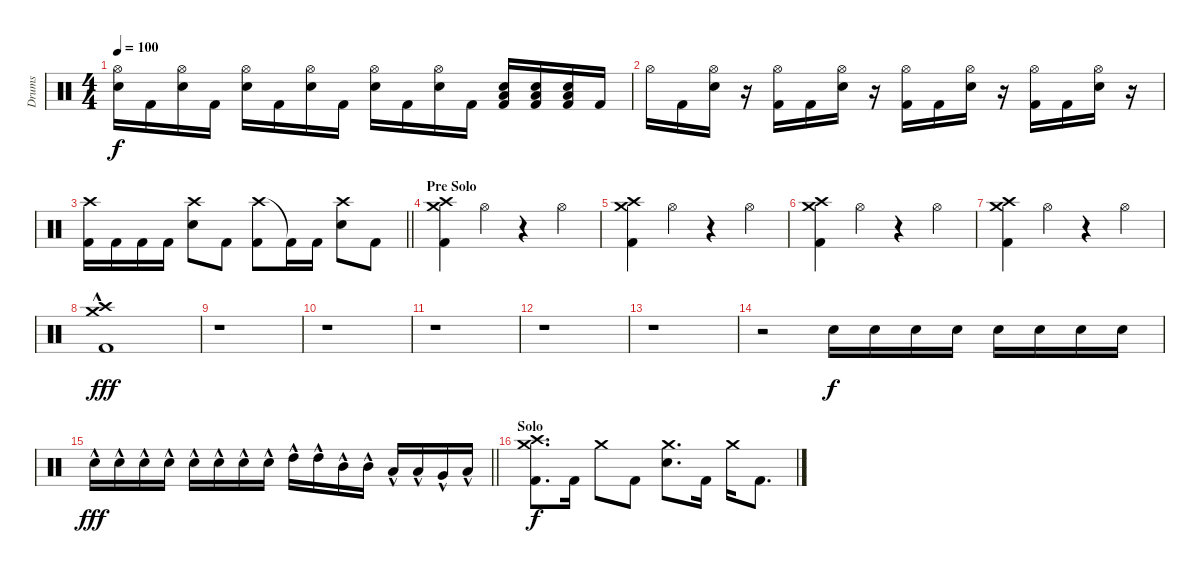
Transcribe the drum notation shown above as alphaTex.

\track ("Drums" "Drums") {instrument percussion}
\staff {score}
\articulation defaults
\ts (4 4)
\tempo 100
\clef neutral
\ks c
("Hi-Hat (open)" "Snare (hit) 2").16{dy f} "Kick (hit) 2".16 ("Hi-Hat (open)" "Snare (hit) 2").16 "Kick (hit) 2".16 ("Hi-Hat (open)" "Snare (hit) 2").16 "Kick (hit) 2".16 ("Hi-Hat (open)" "Snare (hit) 2").16 "Kick (hit) 2".16 ("Hi-Hat (open)" "Snare (hit) 2").16 "Kick (hit) 2".16 ("Hi-Hat (open)" "Snare (hit) 2").16 "Kick (hit) 2".16 ("Low Floor Tom (hit)" "Snare (hit) 2" "Kick (hit) 2").16 ("Low Floor Tom (hit)" "Snare (hit) 2" "Kick (hit) 2").16 ("Low Floor Tom (hit)" "Snare (hit) 2" "Kick (hit) 2").16 "Kick (hit) 2".16 |
"Hi-Hat (open)".16 "Kick (hit) 2".16 ("Hi-Hat (open)" "Snare (hit) 2").16 r.16 ("Hi-Hat (open)" "Kick (hit) 2").16 "Kick (hit) 2".16 ("Hi-Hat (open)" "Snare (hit) 2").16 r.16 ("Hi-Hat (open)" "Kick (hit) 2").16 "Kick (hit) 2".16 ("Hi-Hat (open)" "Snare (hit) 2").16 r.16 ("Hi-Hat (open)" "Kick (hit) 2").16 "Kick (hit) 2".16 ("Hi-Hat (open)" "Snare (hit) 2").16 r.16 |
\barLineRight lightlight
("Crash high (hit)" "Kick (hit) 2").16 "Kick (hit) 2".16 "Kick (hit) 2".16 "Kick (hit) 2".16 ("Crash high (hit)" "Snare (hit) 2").8 "Kick (hit) 2".8 ("Crash high (hit)" "Kick (hit) 2").8 "Kick (hit) 2"{t}.16 "Kick (hit) 2".16 ("Crash high (hit)" "Snare (hit) 2").8 "Kick (hit) 2".8 |
\section ("" "Pre Solo")
("Crash medium (hit)" "Crash high (hit)" "Kick (hit) 2").4 "Hi-Hat (open)".4 r.4 "Hi-Hat (open)".4 |
("Crash medium (hit)" "Crash high (hit)" "Kick (hit) 2").4 "Hi-Hat (open)".4 r.4 "Hi-Hat (open)".4 |
("Crash medium (hit)" "Crash high (hit)" "Kick (hit) 2").4 "Hi-Hat (open)".4 r.4 "Hi-Hat (open)".4 |
("Crash medium (hit)" "Crash high (hit)" "Kick (hit) 2").4 "Hi-Hat (open)".4 r.4 "Hi-Hat (open)".4 |
("Crash medium (hit)" "Crash high (hit)" "Kick (hit) 2"{hac}).1{dy fff} |
r.1 |
r.1 |
r.1 |
r.1 |
r.1 |
r.2 "Snare (hit) 2".16{dy f} "Snare (hit) 2".16 "Snare (hit) 2".16 "Snare (hit) 2".16 "Snare (hit) 2".16 "Snare (hit) 2".16 "Snare (hit) 2".16 "Snare (hit) 2".16 |
\barLineRight lightlight "Snare (hit) 2"{hac}.16{dy fff} "Snare (hit) 2"{hac}.16 "Snare (hit) 2"{hac}.16 "Snare (hit) 2"{hac}.16 "Snare (hit) 2"{hac}.16 "Snare (hit) 2"{hac}.16 "Snare (hit) 2"{hac}.16 "Snare (hit) 2"{hac}.16 "High Tom (hit)"{hac}.16 "High Tom (hit)"{hac}.16 "Mid Tom (hit)"{hac}.16 "Mid Tom (hit)"{hac}.16 "Low Tom (hit)"{hac}.16 "Low Tom (hit)"{hac}.16 "Very Low Tom (hit)"{hac}.16 "Low Floor Tom (hit)"{hac}.16
|
\section ("" "Solo")
("Crash high (hit)" "Kick (hit) 2" "Crash medium (hit)").8{d dy f} "Kick (hit) 2".16 "Crash medium (hit)".8 "Kick (hit) 2".8 ("Snare (hit) 2" "Crash medium (hit)").8{d} "Kick (hit) 2".16 "Crash medium (hit)".16 "Kick (hit) 2".8{d}
